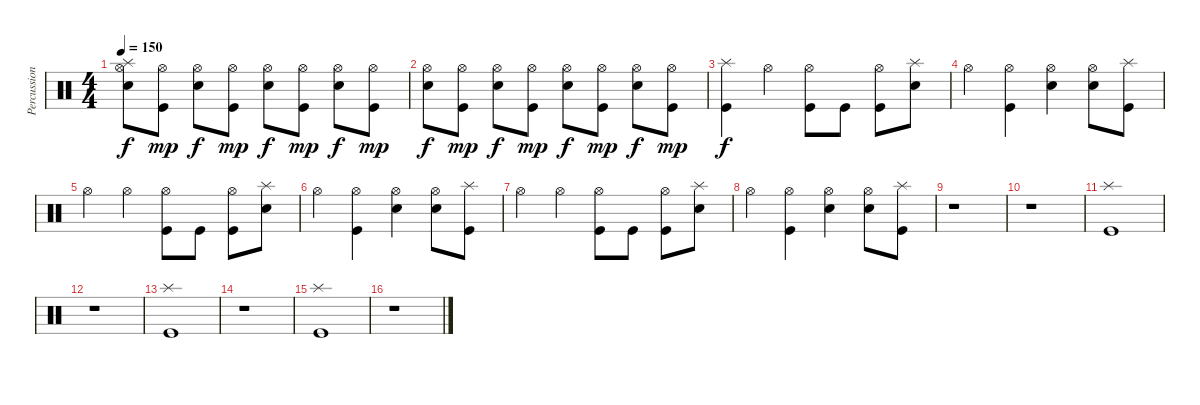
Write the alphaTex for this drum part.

\track ("Percussions" "Percussion") {instrument percussion}
\staff {score}
\articulation defaults
\ts (4 4)
\tempo 150
\clef neutral
\ks c
("Splash (hit)" "Hi-Hat (open)" "Electric Snare (hit)").8{dy f} ("Hi-Hat (open)" "Kick (hit)").8{dy mp} ("Hi-Hat (open)" "Electric Snare (hit)").8{dy f} ("Hi-Hat (open)" "Kick (hit)").8{dy mp} ("Hi-Hat (open)" "Electric Snare (hit)").8{dy f} ("Hi-Hat (open)" "Kick (hit)").8{dy mp} ("Hi-Hat (open)" "Electric Snare (hit)").8{dy f} ("Hi-Hat (open)" "Kick (hit)").8{dy mp} |
("Hi-Hat (open)" "Electric Snare (hit)").8{dy f} ("Hi-Hat (open)" "Kick (hit)").8{dy mp} ("Hi-Hat (open)" "Electric Snare (hit)").8{dy f} ("Hi-Hat (open)" "Kick (hit)").8{dy mp} ("Hi-Hat (open)" "Electric Snare (hit)").8{dy f} ("Hi-Hat (open)" "Kick (hit)").8{dy mp} ("Hi-Hat (open)" "Electric Snare (hit)").8{dy f} ("Hi-Hat (open)" "Kick (hit)").8{dy mp} |
("Splash (hit)" "Kick (hit)").4{dy f} "Hi-Hat (open)".4 ("Hi-Hat (open)" "Kick (hit)").8 "Kick (hit)".8 ("Hi-Hat (open)" "Kick (hit)").8 ("Splash (hit)" "Electric Snare (hit)").8 |
"Hi-Hat (open)".4 ("Hi-Hat (open)" "Kick (hit)").4 ("Hi-Hat (open)" "Electric Snare (hit)").4 ("Hi-Hat (open)" "Electric Snare (hit)").8 ("Splash (hit)" "Kick (hit)").8 |
"Hi-Hat (open)".4 "Hi-Hat (open)".4 ("Hi-Hat (open)" "Kick (hit)").8 "Kick (hit)".8 ("Hi-Hat (open)" "Kick (hit)").8 ("Splash (hit)" "Electric Snare (hit)").8 |
"Hi-Hat (open)".4 ("Hi-Hat (open)" "Kick (hit)").4 ("Hi-Hat (open)" "Electric Snare (hit)").4 ("Hi-Hat (open)" "Electric Snare (hit)").8 ("Splash (hit)" "Kick (hit)").8 |
"Hi-Hat (open)".4 "Hi-Hat (open)".4 ("Hi-Hat (open)" "Kick (hit)").8 "Kick (hit)".8 ("Hi-Hat (open)" "Kick (hit)").8 ("Splash (hit)" "Electric Snare (hit)").8 |
"Hi-Hat (open)".4 ("Hi-Hat (open)" "Kick (hit)").4 ("Hi-Hat (open)" "Electric Snare (hit)").4 ("Hi-Hat (open)" "Electric Snare (hit)").8 ("Splash (hit)" "Kick (hit)").8 |
r.1 |
r.1 |
("Splash (hit)" "Kick (hit)").1 |
r.1 |
("Splash (hit)" "Kick (hit)").1 |
r.1 |
("Splash (hit)" "Kick (hit)").1 |
r.1
